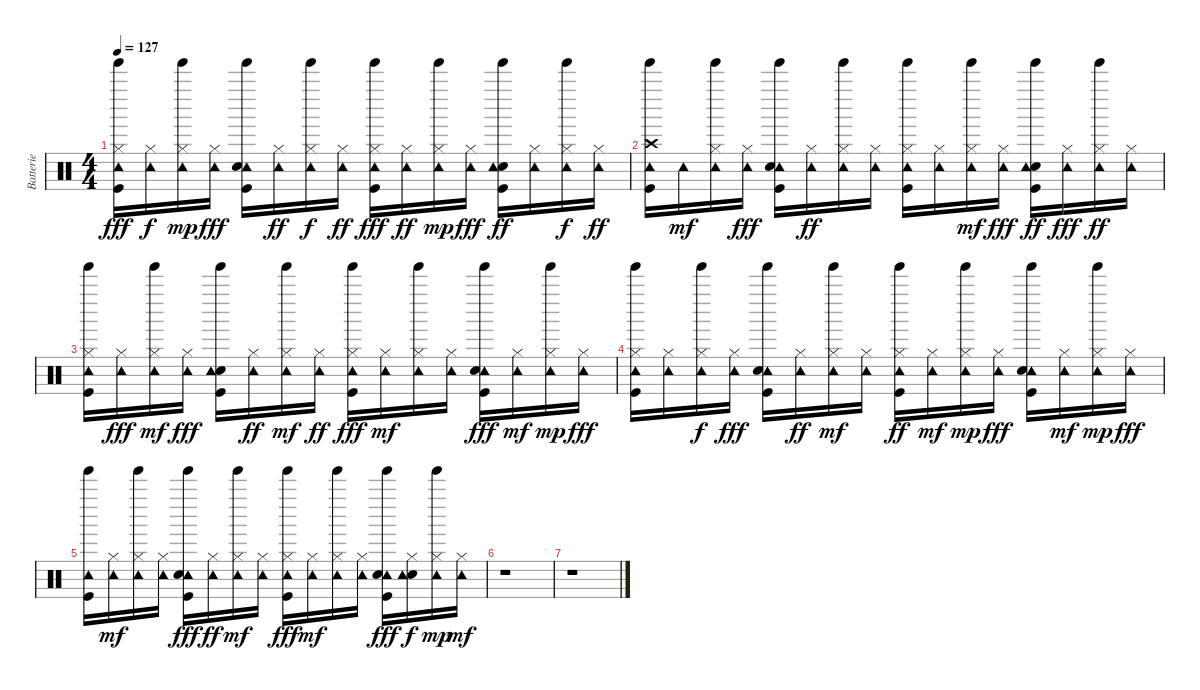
\track ("Batterie" "Batterie") {instrument percussion}
\staff {score}
\articulation defaults
\ts (4 4)
\tempo 127
\clef neutral
\ks c
("Tinkle Bell (hit)" "Tambourine (hit)" "Hi-Hat (closed)" "Kick (hit)").16{dy fff} ("Tambourine (hit)" "Hi-Hat (closed)").16{dy f} ("Tinkle Bell (hit)" "Hi-Hat (closed)" "Tambourine (hit)").16{dy mp} ("Tambourine (hit)" "Hi-Hat (closed)").16{dy fff} ("Tinkle Bell (hit)" "Tambourine (hit)" "Kick (hit)" "Snare (hit) 2").16 ("Tambourine (hit)" "Hi-Hat (closed)").16{dy ff} ("Tinkle Bell (hit)" "Tambourine (hit)" "Hi-Hat (closed)").16{dy f} ("Tambourine (hit)" "Hi-Hat (closed)").16{dy ff} ("Tinkle Bell (hit)" "Tambourine (hit)" "Hi-Hat (closed)" "Kick (hit)").16{dy fff} ("Tambourine (hit)" "Hi-Hat (closed)").16{dy ff} ("Hi-Hat (closed)" "Tambourine (hit)" "Tinkle Bell (hit)").16{dy mp} ("Tambourine (hit)" "Hi-Hat (closed)").16{dy fff} ("Tinkle Bell (hit)" "Kick (hit)" "Snare (hit) 2" "Tambourine (hit)").16{dy ff} ("Tambourine (hit)" "Hi-Hat (closed)").16 ("Tinkle Bell (hit)" "Tambourine (hit)" "Hi-Hat (closed)").16{dy f} ("Tambourine (hit)" "Hi-Hat (closed)").16{dy ff} |
("Crash high (hit)" "Tinkle Bell (hit)" "Kick (hit)" "Tambourine (hit)").16 "Tambourine (hit)".16{dy mf} ("Hi-Hat (closed)" "Tinkle Bell (hit)" "Tambourine (hit)").16 ("Tambourine (hit)" "Hi-Hat (closed)").16{dy fff} ("Tinkle Bell (hit)" "Kick (hit)" "Tambourine (hit)" "Snare (hit) 2").16 ("Tambourine (hit)" "Hi-Hat (closed)").16{dy ff} ("Tinkle Bell (hit)" "Tambourine (hit)" "Hi-Hat (closed)").16 ("Tambourine (hit)" "Hi-Hat (closed)").16 ("Tinkle Bell (hit)" "Kick (hit)" "Hi-Hat (closed)" "Tambourine (hit)").16 ("Tambourine (hit)" "Hi-Hat (closed)").16 ("Tinkle Bell (hit)" "Hi-Hat (closed)" "Tambourine (hit)").16{dy mf} ("Tambourine (hit)" "Hi-Hat (closed)").16{dy fff} ("Tinkle Bell (hit)" "Kick (hit)" "Snare (hit) 2" "Tambourine (hit)").16{dy ff} ("Tambourine (hit)" "Hi-Hat (closed)").16{dy fff} ("Tambourine (hit)" "Tinkle Bell (hit)" "Hi-Hat (closed)").16{dy ff} ("Tambourine (hit)" "Hi-Hat (closed)").16 |
("Tinkle Bell (hit)" "Kick (hit)" "Hi-Hat (closed)" "Tambourine (hit)").16 ("Tambourine (hit)" "Hi-Hat (closed)").16{dy fff} ("Hi-Hat (closed)" "Tambourine (hit)" "Tinkle Bell (hit)").16{dy mf} ("Tambourine (hit)" "Hi-Hat (closed)").16{dy fff} ("Tinkle Bell (hit)" "Snare (hit) 2" "Tambourine (hit)" "Kick (hit)").16 ("Tambourine (hit)" "Hi-Hat (closed)").16{dy ff} ("Tinkle Bell (hit)" "Hi-Hat (closed)" "Tambourine (hit)").16{dy mf} ("Tambourine (hit)" "Hi-Hat (closed)").16{dy ff} ("Tinkle Bell (hit)" "Hi-Hat (closed)" "Tambourine (hit)" "Kick (hit)").16{dy fff} ("Hi-Hat (closed)" "Tambourine (hit)").16{dy mf} ("Tinkle Bell (hit)" "Hi-Hat (closed)" "Tambourine (hit)").16 ("Hi-Hat (closed)" "Tambourine (hit)").16 ("Tinkle Bell (hit)" "Kick (hit)" "Tambourine (hit)" "Snare (hit) 2").16{dy fff} ("Hi-Hat (closed)" "Tambourine (hit)").16{dy mf} ("Hi-Hat (closed)" "Tinkle Bell (hit)" "Tambourine (hit)").16{dy mp} ("Tambourine (hit)" "Hi-Hat (closed)").16{dy fff} |
("Hi-Hat (closed)" "Tambourine (hit)" "Tinkle Bell (hit)" "Kick (hit)").16 ("Tambourine (hit)" "Hi-Hat (closed)").16 ("Tambourine (hit)" "Tinkle Bell (hit)" "Hi-Hat (closed)").16{dy f} ("Tambourine (hit)" "Hi-Hat (closed)").16{dy fff} ("Tinkle Bell (hit)" "Kick (hit)" "Tambourine (hit)" "Snare (hit) 2").16 ("Tambourine (hit)" "Hi-Hat (closed)").16{dy ff} ("Hi-Hat (closed)" "Tambourine (hit)" "Tinkle Bell (hit)").16{dy mf} ("Hi-Hat (closed)" "Tambourine (hit)").16 ("Tinkle Bell (hit)" "Kick (hit)" "Hi-Hat (closed)" "Tambourine (hit)").16{dy ff} ("Hi-Hat (closed)" "Tambourine (hit)").16{dy mf} ("Tinkle Bell (hit)" "Hi-Hat (closed)" "Tambourine (hit)").16{dy mp} ("Tambourine (hit)" "Hi-Hat (closed)").16{dy fff} ("Tinkle Bell (hit)" "Tambourine (hit)" "Kick (hit)" "Snare (hit) 2").16 ("Hi-Hat (closed)" "Tambourine (hit)").16{dy mf} ("Tambourine (hit)" "Hi-Hat (closed)" "Tinkle Bell (hit)").16{dy mp} ("Tambourine (hit)" "Hi-Hat (closed)").16{dy fff} |
("Tambourine (hit)" "Tinkle Bell (hit)" "Kick (hit)").16 ("Hi-Hat (closed)" "Tambourine (hit)").16{dy mf} ("Tinkle Bell (hit)" "Hi-Hat (closed)" "Tambourine (hit)").16 ("Hi-Hat (closed)" "Tambourine (hit)").16 ("Tambourine (hit)" "Tinkle Bell (hit)" "Kick (hit)" "Snare (hit) 2").16{dy fff} ("Tambourine (hit)" "Hi-Hat (closed)").16{dy ff} ("Hi-Hat (closed)" "Tinkle Bell (hit)" "Tambourine (hit)").16{dy mf} ("Hi-Hat (closed)" "Tambourine (hit)").16 ("Tinkle Bell (hit)" "Kick (hit)" "Tambourine (hit)" "Hi-Hat (closed)").16{dy fff} ("Hi-Hat (closed)" "Tambourine (hit)").16{dy mf} ("Hi-Hat (closed)" "Tambourine (hit)" "Tinkle Bell (hit)").16 ("Hi-Hat (closed)" "Tambourine (hit)").16 ("Tambourine (hit)" "Tinkle Bell (hit)" "Kick (hit)" "Snare (hit) 2").16{dy fff} ("Snare (hit) 2" "Hi-Hat (closed)" "Tambourine (hit)").16{dy f} ("Hi-Hat (closed)" "Tambourine (hit)" "Tinkle Bell (hit)").16{dy mp} ("Hi-Hat (closed)" "Tambourine (hit)").16{dy mf} |
r.1 |
r.1
